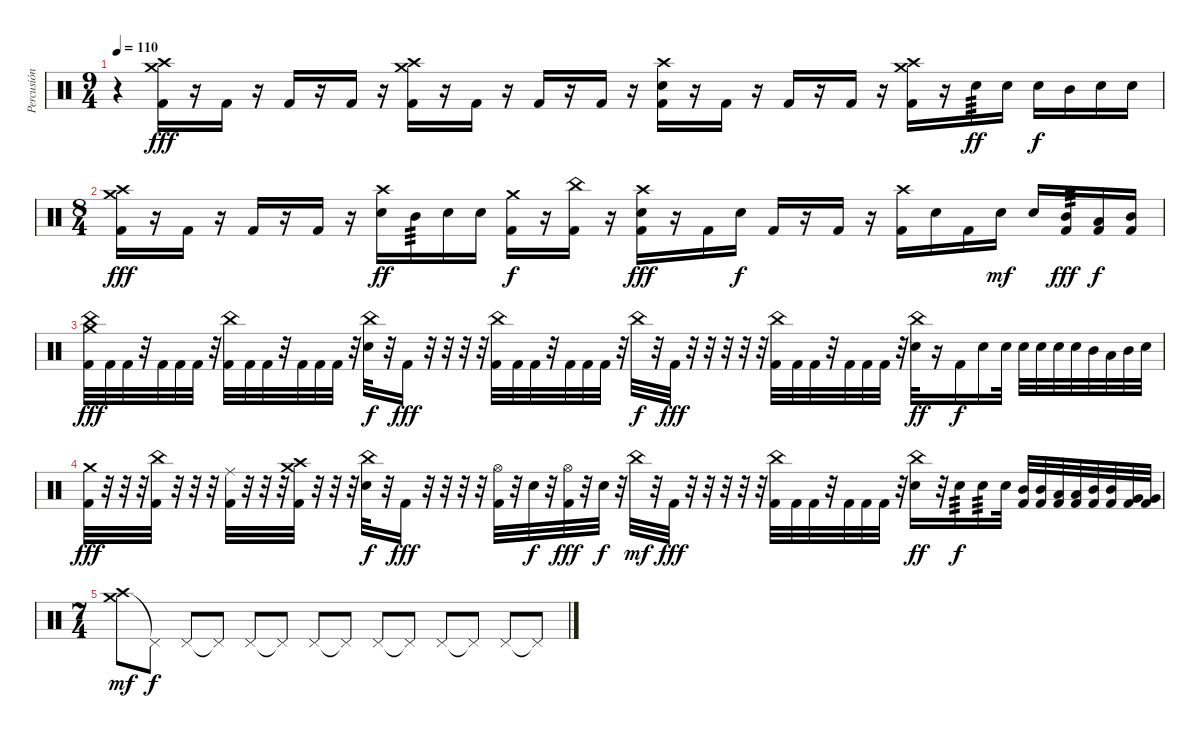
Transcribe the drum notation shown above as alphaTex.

\track ("Percusión" "Percusión") {instrument percussion}
\staff {score}
\articulation defaults
\ts (9 4)
\tempo 110
\clef neutral
\ks c
r.4{dy fff} ("Crash medium (hit)" "Crash high (hit)" "Kick (hit) 2").16 r.16 "Kick (hit) 2".16 r.16 "Kick (hit) 2".16 r.16 "Kick (hit) 2".16 r.16 ("Crash high (hit)" "Crash medium (hit)" "Kick (hit) 2").16 r.16 "Kick (hit) 2".16 r.16 "Kick (hit) 2".16 r.16 "Kick (hit) 2".16 r.16 ("Crash high (hit)" "Snare (hit) 2" "Kick (hit) 2").16 r.16 "Kick (hit) 2".16 r.16 "Kick (hit) 2".16 r.16 "Kick (hit) 2".16 r.16 ("Crash high (hit)" "Crash medium (hit)" "Kick (hit) 2").16 r.16 "Snare (hit) 2".16{tp 3 dy ff} "Snare (hit) 2".16 "Snare (hit) 2".16{dy f} "Mid Tom (hit)".16 "Snare (hit) 2".16 "Snare (hit) 2".16 |
\ts (8 4)
("Crash high (hit)" "Crash medium (hit)" "Kick (hit) 2").16{dy fff} r.16 "Kick (hit) 2".16 r.16 "Kick (hit) 2".16 r.16 "Kick (hit) 2".16 r.16 ("Crash high (hit)" "Snare (hit) 2").16{dy ff} "Mid Tom (hit)".16{tp 3} "Snare (hit) 2".16 "Snare (hit) 2".16 ("Crash medium (hit)" "Kick (hit) 2").16{dy f} r.16 ("China (hit)" "Kick (hit) 2").16 r.16 ("Crash high (hit)" "Snare (hit) 2" "Kick (hit) 2").16{dy fff} r.16 "Kick (hit) 2".16 "Snare (hit) 2".16{dy f} "Kick (hit) 2".16 r.16 "Kick (hit) 2".16 r.16 ("Crash high (hit)" "Kick (hit) 2").16 "Snare (hit) 2".16 "Kick (hit) 2".16 "Snare (hit) 2".16{dy mf} "Snare (hit) 2".16 ("Mid Tom (hit)" "Kick (hit) 2").16{tp 3 dy fff} ("Low Floor Tom (hit)" "Kick (hit) 2").16{dy f} ("Mid Tom (hit)" "Kick (hit) 2").16 |
("China (hit)" "Crash medium (hit)" "Kick (hit) 2").32{dy fff} "Kick (hit) 2".32 "Kick (hit) 2".32 r.32 "Kick (hit) 2".32 "Kick (hit) 2".32 "Kick (hit) 2".32 r.32 ("China (hit)" "Kick (hit) 2").32 "Kick (hit) 2".32 "Kick (hit) 2".32 r.32 "Kick (hit) 2".32 "Kick (hit) 2".32 "Kick (hit) 2".32 r.32 ("China (hit)" "Snare (hit) 2").32{dy f} r.32 "Kick (hit) 2".16{dy fff} r.32 r.32 r.32 r.32 ("China (hit)" "Kick (hit) 2").32 "Kick (hit) 2".32 "Kick (hit) 2".32 r.32 "Kick (hit) 2".32 "Kick (hit) 2".32 "Kick (hit) 2".32 r.32 "China (hit)".32{dy f} r.32 "Kick (hit) 2".32{dy fff} r.32 r.32 r.32 r.32 r.32 ("China (hit)" "Kick (hit) 2").32 "Kick (hit) 2".32 "Kick (hit) 2".32 r.32 "Kick (hit) 2".32 "Kick (hit) 2".32 "Kick (hit) 2".32 r.32 ("China (hit)" "Snare (hit) 2").32{dy ff} r.16 "Kick (hit) 2".16{dy f} "Snare (hit) 2".16 "Snare (hit) 2".32 "Snare (hit) 2".32 "Snare (hit) 2".32 "Snare (hit) 2".32 "Snare (hit) 2".32 "Mid Tom (hit)".32 "Low Floor Tom (hit)".32 "Mid Tom (hit)".32 "Snare (hit) 2".32 |
("Crash medium (hit)" "Kick (hit) 2").32{dy fff} r.32 r.32 r.32 ("China (hit)" "Kick (hit) 2").32 r.32 r.32 r.32 ("Ride (middle)" "Kick (hit) 2").32 r.32 r.32 r.32 ("Crash high (hit)" "Crash medium (hit)" "Kick (hit) 2").32 r.32 r.32 r.32 ("China (hit)" "Snare (hit) 2").32{dy f} r.32 "Kick (hit) 2".16{dy fff} r.32 r.32 r.32 r.32 ("Hi-Hat (open)" "Kick (hit) 2").32 r.32 "Snare (hit) 2".32{dy f} r.32 ("Hi-Hat (open)" "Kick (hit) 2").32{dy fff} r.32 "Snare (hit) 2".32{dy f} r.32 "China (hit)".32{dy mf} r.32 "Kick (hit) 2".32{dy fff} r.32 r.32 r.32 r.32 r.32 ("China (hit)" "Kick (hit) 2").32 "Kick (hit) 2".32 "Kick (hit) 2".32 r.32 "Kick (hit) 2".32 "Kick (hit) 2".32 "Kick (hit) 2".32 r.32 ("China (hit)" "Snare (hit) 2").16{dy ff} r.32 "Snare (hit) 2".16{tp 3 dy f} "Snare (hit) 2".16{tp 3} "Snare (hit) 2".32 ("Mid Tom (hit)" "Kick (hit) 2").32 ("Mid Tom (hit)" "Kick (hit) 2").32 ("Low Floor Tom (hit)" "Kick (hit) 2").32 ("Low Floor Tom (hit)" "Kick (hit) 2").32 ("Mid Tom (hit)" "Kick (hit) 2").32 ("Mid Tom (hit)" "Kick (hit) 2").32 ("Very Low Tom (hit)" "Kick (hit) 2").32 ("Very Low Tom (hit)" "Kick (hit) 2").32 |
\ts (7 4)
("Crash medium (hit)" "Crash high (hit)").8{dy mf} "Pedal Hi-Hat (hit)"{t}.8{dy f} "Pedal Hi-Hat (hit)".8 "Pedal Hi-Hat (hit)"{t}.8 "Pedal Hi-Hat (hit)".8 "Pedal Hi-Hat (hit)"{t}.8 "Pedal Hi-Hat (hit)".8 "Pedal Hi-Hat (hit)"{t}.8 "Pedal Hi-Hat (hit)".8 "Pedal Hi-Hat (hit)"{t}.8 "Pedal Hi-Hat (hit)".8 "Pedal Hi-Hat (hit)"{t}.8 "Pedal Hi-Hat (hit)".8 "Pedal Hi-Hat (hit)"{t}.8
